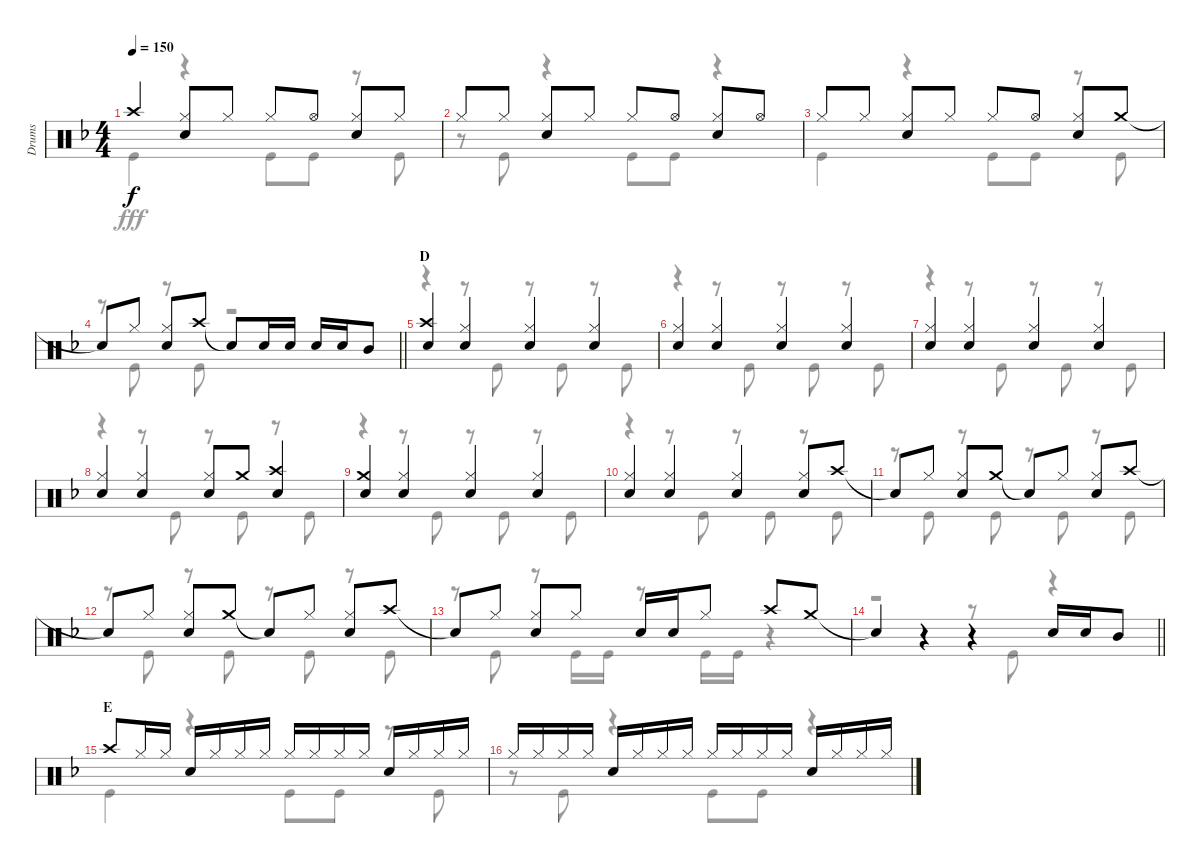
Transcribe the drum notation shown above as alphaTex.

\track ("Drums" "Drums") {instrument percussion}
\staff {score}
\articulation defaults
\voice
\ts (4 4)
\tempo 150
\clef neutral
\ks f "Crash high (hit)".4{dy f}
("Hi-Hat (closed)" "Snare (hit) 2").8 "Hi-Hat (closed)".8 "Hi-Hat (closed)".8 "Hi-Hat (open)".8 ("Hi-Hat (closed)" "Snare (hit) 2").8 "Hi-Hat (closed)".8 |
"Hi-Hat (closed)".8 "Hi-Hat (closed)".8 ("Hi-Hat (closed)" "Snare (hit) 2").8 "Hi-Hat (closed)".8 "Hi-Hat (closed)".8 "Hi-Hat (open)".8 ("Hi-Hat (closed)" "Snare (hit) 2").8 "Hi-Hat (open)".8 |
"Hi-Hat (closed)".8 "Hi-Hat (closed)".8 ("Hi-Hat (closed)" "Snare (hit) 2").8 "Hi-Hat (closed)".8 "Hi-Hat (closed)".8 "Hi-Hat (open)".8 ("Hi-Hat (closed)" "Snare (hit) 2").8 "Crash medium (hit)".8 |
\barLineRight lightlight "Snare (hit)"{t}.8 "Hi-Hat (closed)".8
("Hi-Hat (closed)" "Snare (hit) 2").8 "Crash high (hit)".8 "Snare (hit)"{t}.8 "Snare (hit) 2".16 "Snare (hit) 2".16 "Snare (hit) 2".16 "Snare (hit) 2".16 "Mid Tom (hit)".8 |
\section ("" "D")
("Crash high (hit)" "Snare (hit) 2").4 ("Hi-Hat (closed)" "Snare (hit) 2").4 ("Hi-Hat (closed)" "Snare (hit) 2").4 ("Hi-Hat (closed)" "Snare (hit) 2").4 |
("Hi-Hat (closed)" "Snare (hit) 2").4 ("Hi-Hat (closed)" "Snare (hit) 2").4 ("Hi-Hat (closed)" "Snare (hit) 2").4 ("Hi-Hat (closed)" "Snare (hit) 2").4 |
("Hi-Hat (closed)" "Snare (hit) 2").4 ("Hi-Hat (closed)" "Snare (hit) 2").4 ("Hi-Hat (closed)" "Snare (hit) 2").4 ("Hi-Hat (closed)" "Snare (hit) 2").4 |
("Hi-Hat (closed)" "Snare (hit) 2").4 ("Hi-Hat (closed)" "Snare (hit) 2").4 ("Hi-Hat (closed)" "Snare (hit) 2").8 "Crash medium (hit)".8 ("Crash high (hit)" "Snare (hit) 2").4 |
("Crash medium (hit)" "Snare (hit) 2").4 ("Hi-Hat (closed)" "Snare (hit) 2").4 ("Hi-Hat (closed)" "Snare (hit) 2").4 ("Hi-Hat (closed)" "Snare (hit) 2").4 |
("Hi-Hat (closed)" "Snare (hit) 2").4 ("Hi-Hat (closed)" "Snare (hit) 2").4 ("Hi-Hat (closed)" "Snare (hit) 2").4 ("Hi-Hat (closed)" "Snare (hit) 2").8 "Crash high (hit)".8 |
"Snare (hit)"{t}.8 "Hi-Hat (closed)".8 ("Hi-Hat (closed)" "Snare (hit) 2").8 "Crash medium (hit)".8 "Snare (hit)"{t}.8 "Hi-Hat (closed)".8 ("Hi-Hat (closed)" "Snare (hit) 2").8 "Crash high (hit)".8 |
"Snare (hit)"{t}.8 "Hi-Hat (closed)".8 ("Hi-Hat (closed)" "Snare (hit) 2").8 "Crash medium (hit)".8 "Snare (hit)"{t}.8 "Hi-Hat (closed)".8 ("Hi-Hat (closed)" "Snare (hit) 2").8 "Crash high (hit)".8 |
"Snare (hit)"{t}.8 "Hi-Hat (closed)".8 ("Hi-Hat (closed)" "Snare (hit) 2").8 "Hi-Hat (closed)".8 "Snare (hit) 2".16 "Snare (hit) 2".16 "Hi-Hat (closed)".8 "Crash high (hit)".8 "Crash medium (hit)".8 |
\barLineRight lightlight "Snare (hit)"{t}.4
r.4 r.4 "Snare (hit) 2".16 "Snare (hit) 2".16 "Mid Tom (hit)".8 |
\section ("" "E")
"Crash high (hit)".8 "Hi-Hat (closed)".16 "Hi-Hat (closed)".16 "Snare (hit) 2".16 "Hi-Hat (closed)".16 "Hi-Hat (closed)".16 "Hi-Hat (closed)".16 "Hi-Hat (closed)".16 "Hi-Hat (closed)".16 "Hi-Hat (closed)".16 "Hi-Hat (closed)".16 "Snare (hit) 2".16 "Hi-Hat (closed)".16 "Hi-Hat (closed)".16 "Hi-Hat (closed)".16 |
"Hi-Hat (closed)".16 "Hi-Hat (closed)".16 "Hi-Hat (closed)".16 "Hi-Hat (closed)".16 "Snare (hit) 2".16 "Hi-Hat (closed)".16 "Hi-Hat (closed)".16 "Hi-Hat (closed)".16 "Hi-Hat (closed)".16 "Hi-Hat (closed)".16 "Hi-Hat (closed)".16 "Hi-Hat (closed)".16 "Snare (hit) 2".16 "Hi-Hat (closed)".16 "Hi-Hat (closed)".16 "Hi-Hat (closed)".16
\voice
\clef neutral
\ottava regular
\simile none
\ks f "Kick (hit)".4{dy fff}
r.4 "Kick (hit)".8 "Kick (hit)".8 r.8 "Kick (hit)".8 |
r.8 "Kick (hit)".8 r.4 "Kick (hit)".8 "Kick (hit)".8 r.4 |
"Kick (hit)".4 r.4 "Kick (hit)".8 "Kick (hit)".8 r.8 "Kick (hit)".8 |
\barLineRight lightlight
r.8 "Kick (hit)".8 r.8 "Kick (hit)".8 r.2 |
r.4 r.8 "Kick (hit)".8 r.8 "Kick (hit)".8 r.8 "Kick (hit)".8 |
r.4 r.8 "Kick (hit)".8 r.8 "Kick (hit)".8 r.8 "Kick (hit)".8 |
r.4 r.8 "Kick (hit)".8 r.8 "Kick (hit)".8 r.8 "Kick (hit)".8 |
r.4 r.8 "Kick (hit)".8 r.8 "Kick (hit)".8 r.8 "Kick (hit)".8 |
r.4 r.8 "Kick (hit)".8 r.8 "Kick (hit)".8 r.8 "Kick (hit)".8 |
r.4 r.8 "Kick (hit)".8 r.8 "Kick (hit)".8 r.8 "Kick (hit)".8 |
r.8 "Kick (hit)".8 r.8 "Kick (hit)".8 r.8 "Kick (hit)".8 r.8 "Kick (hit)".8 |
r.8 "Kick (hit)".8 r.8 "Kick (hit)".8 r.8 "Kick (hit)".8 r.8 "Kick (hit)".8 |
r.8 "Kick (hit)".8 r.8 "Kick (hit)".16 "Kick (hit)".16 r.8 "Kick (hit)".16 "Kick (hit)".16 r.4 |
\barLineRight lightlight
r.2 r.8 "Kick (hit)".8 r.4 |
"Kick (hit)".4 r.4 "Kick (hit)".8 "Kick (hit)".8 r.8 "Kick (hit)".8 |
r.8 "Kick (hit)".8 r.4 "Kick (hit)".8 "Kick (hit)".8 r.4
